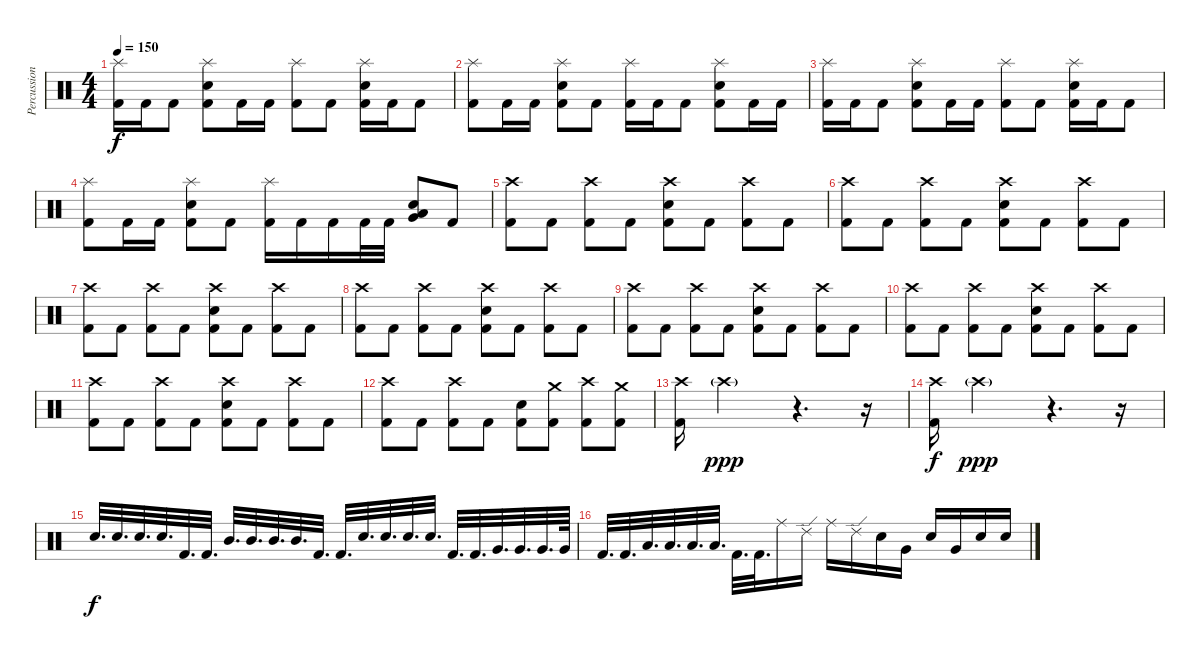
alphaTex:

\track ("Percussion" "Percussion") {instrument percussion}
\staff {score}
\articulation defaults
\ts (4 4)
\tempo 150
\clef neutral
\ks c
("Splash (hit)" "Kick (hit) 2").16{dy f} "Kick (hit) 2".16 "Kick (hit) 2".8 ("Splash (hit)" "Electric Snare (hit)" "Kick (hit) 2").8 "Kick (hit) 2".16 "Kick (hit) 2".16 ("Splash (hit)" "Kick (hit) 2").8 "Kick (hit) 2".8 ("Splash (hit)" "Electric Snare (hit)" "Kick (hit) 2").16 "Kick (hit) 2".16 "Kick (hit) 2".8 |
("Splash (hit)" "Kick (hit) 2").8 "Kick (hit) 2".16 "Kick (hit) 2".16 ("Splash (hit)" "Electric Snare (hit)" "Kick (hit) 2").8 "Kick (hit) 2".8 ("Splash (hit)" "Kick (hit) 2").16 "Kick (hit) 2".16 "Kick (hit) 2".8 ("Splash (hit)" "Electric Snare (hit)" "Kick (hit) 2").8 "Kick (hit) 2".16 "Kick (hit) 2".16 |
("Splash (hit)" "Kick (hit) 2").16 "Kick (hit) 2".16 "Kick (hit) 2".8 ("Splash (hit)" "Electric Snare (hit)" "Kick (hit) 2").8 "Kick (hit) 2".16 "Kick (hit) 2".16 ("Splash (hit)" "Kick (hit) 2").8 "Kick (hit) 2".8 ("Splash (hit)" "Electric Snare (hit)" "Kick (hit) 2").16 "Kick (hit) 2".16 "Kick (hit) 2".8 |
("Splash (hit)" "Kick (hit) 2").8 "Kick (hit) 2".16 "Kick (hit) 2".16 ("Splash (hit)" "Electric Snare (hit)" "Kick (hit) 2").8 "Kick (hit) 2".8 ("Splash (hit)" "Kick (hit) 2").16 "Kick (hit) 2".16 "Kick (hit) 2".16 "Kick (hit) 2".32 "Kick (hit) 2".32 ("Low Floor Tom (hit)" "Electric Snare (hit)" "Very Low Tom (hit)").8 "Kick (hit) 2".8 |
("Crash high (hit)" "Kick (hit) 2").8 "Kick (hit) 2".8 ("Crash high (hit)" "Kick (hit) 2").8 "Kick (hit) 2".8 ("Crash high (hit)" "Electric Snare (hit)" "Kick (hit) 2").8 "Kick (hit) 2".8 ("Crash high (hit)" "Kick (hit) 2").8 "Kick (hit) 2".8 |
("Crash high (hit)" "Kick (hit) 2").8 "Kick (hit) 2".8 ("Crash high (hit)" "Kick (hit) 2").8 "Kick (hit) 2".8 ("Crash high (hit)" "Electric Snare (hit)" "Kick (hit) 2").8 "Kick (hit) 2".8 ("Crash high (hit)" "Kick (hit) 2").8 "Kick (hit) 2".8 |
("Crash high (hit)" "Kick (hit) 2").8 "Kick (hit) 2".8 ("Crash high (hit)" "Kick (hit) 2").8 "Kick (hit) 2".8 ("Crash high (hit)" "Electric Snare (hit)" "Kick (hit) 2").8 "Kick (hit) 2".8 ("Crash high (hit)" "Kick (hit) 2").8 "Kick (hit) 2".8 |
("Crash high (hit)" "Kick (hit) 2").8 "Kick (hit) 2".8 ("Crash high (hit)" "Kick (hit) 2").8 "Kick (hit) 2".8 ("Crash high (hit)" "Electric Snare (hit)" "Kick (hit) 2").8 "Kick (hit) 2".8 ("Crash high (hit)" "Kick (hit) 2").8 "Kick (hit) 2".8 |
("Crash high (hit)" "Kick (hit) 2").8 "Kick (hit) 2".8 ("Crash high (hit)" "Kick (hit) 2").8 "Kick (hit) 2".8 ("Crash high (hit)" "Electric Snare (hit)" "Kick (hit) 2").8 "Kick (hit) 2".8 ("Crash high (hit)" "Kick (hit) 2").8 "Kick (hit) 2".8 |
("Crash high (hit)" "Kick (hit) 2").8 "Kick (hit) 2".8 ("Crash high (hit)" "Kick (hit) 2").8 "Kick (hit) 2".8 ("Crash high (hit)" "Electric Snare (hit)" "Kick (hit) 2").8 "Kick (hit) 2".8 ("Crash high (hit)" "Kick (hit) 2").8 "Kick (hit) 2".8 |
("Crash high (hit)" "Kick (hit) 2").8 "Kick (hit) 2".8 ("Crash high (hit)" "Kick (hit) 2").8 "Kick (hit) 2".8 ("Crash high (hit)" "Electric Snare (hit)" "Kick (hit) 2").8 "Kick (hit) 2".8 ("Crash high (hit)" "Kick (hit) 2").8 "Kick (hit) 2".8 |
("Crash high (hit)" "Kick (hit) 2").8 "Kick (hit) 2".8 ("Crash high (hit)" "Kick (hit) 2").8 "Kick (hit) 2".8 ("Electric Snare (hit)" "Kick (hit) 2").8 ("Crash medium (hit)" "Kick (hit) 2").8 ("Crash high (hit)" "Kick (hit) 2").8 ("Crash medium (hit)" "Kick (hit) 2").8 |
("Crash high (hit)" "Kick (hit) 2").16 "Crash high (hit)"{g}.2{dy ppp} r.4{d} r.16 |
("Crash high (hit)" "Kick (hit) 2").16{dy f} "Crash high (hit)"{g}.2{dy ppp} r.4{d} r.16 |
"Electric Snare (hit)".32{d dy f} "Electric Snare (hit)".32{d} "Electric Snare (hit)".32{d} "Electric Snare (hit)".32{d} "Kick (hit) 2".32{d} "Kick (hit) 2".32{d} "Mid Tom (hit)".32{d} "Mid Tom (hit)".32{d} "Mid Tom (hit)".32{d} "Mid Tom (hit)".32{d} "Kick (hit) 2".32{d} "Kick (hit) 2".32{d} "Electric Snare (hit)".32{d} "Electric Snare (hit)".32{d} "Electric Snare (hit)".32{d} "Electric Snare (hit)".32{d} "Kick (hit) 2".32{d} "Kick (hit) 2".32{d} "Very Low Tom (hit)".32{d} "Very Low Tom (hit)".32{d} "Very Low Tom (hit)".32{d} "Very Low Tom (hit)".64 |
"Kick (hit) 2".32{d} "Kick (hit) 2".32{d} "Low Floor Tom (hit)".32{d} "Low Floor Tom (hit)".32{d} "Low Floor Tom (hit)".32{d} "Low Floor Tom (hit)".32{d} "Kick (hit) 2".32{d} "Kick (hit) 2".32{d} "Ride (middle)".16 "Ride (edge) 2".16 "Ride (middle)".16 "Ride (edge) 2".16 "Electric Snare (hit)".16 "Very Low Tom (hit)".16 "Electric Snare (hit)".16 "Very Low Tom (hit)".16 "Electric Snare (hit)".16 "Electric Snare (hit)".16
